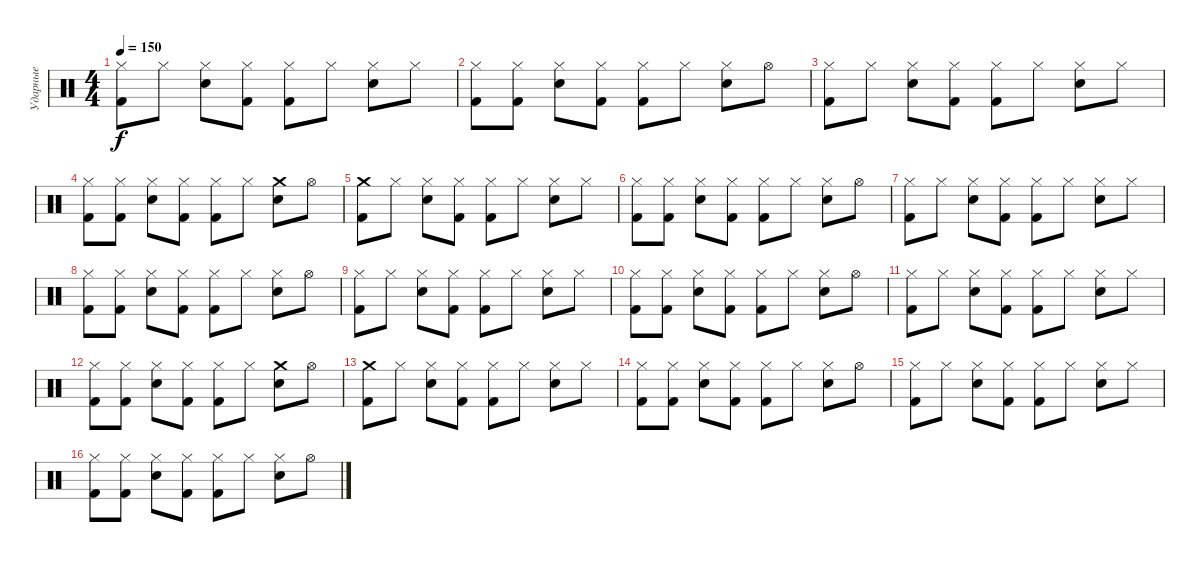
\track ("Ударные" "Ударные") {instrument percussion}
\staff {score}
\articulation defaults
\ts (4 4)
\tempo 150
\clef neutral
\ks c
("Hi-Hat (closed)" "Kick (hit) 2").8{dy f} "Hi-Hat (closed)".8 ("Hi-Hat (closed)" "Snare (hit) 2").8 ("Hi-Hat (closed)" "Kick (hit) 2").8 ("Hi-Hat (closed)" "Kick (hit) 2").8 "Hi-Hat (closed)".8 ("Hi-Hat (closed)" "Snare (hit) 2").8 "Hi-Hat (closed)".8 |
("Hi-Hat (closed)" "Kick (hit) 2").8 ("Hi-Hat (closed)" "Kick (hit) 2").8 ("Hi-Hat (closed)" "Snare (hit) 2").8 ("Hi-Hat (closed)" "Kick (hit) 2").8 ("Hi-Hat (closed)" "Kick (hit) 2").8 "Hi-Hat (closed)".8 ("Hi-Hat (closed)" "Snare (hit) 2").8 "Hi-Hat (open)".8 |
("Hi-Hat (closed)" "Kick (hit) 2").8 "Hi-Hat (closed)".8 ("Hi-Hat (closed)" "Snare (hit) 2").8 ("Hi-Hat (closed)" "Kick (hit) 2").8 ("Hi-Hat (closed)" "Kick (hit) 2").8 "Hi-Hat (closed)".8 ("Hi-Hat (closed)" "Snare (hit) 2").8 "Hi-Hat (closed)".8 |
("Hi-Hat (closed)" "Kick (hit) 2").8 ("Hi-Hat (closed)" "Kick (hit) 2").8 ("Hi-Hat (closed)" "Snare (hit) 2").8 ("Hi-Hat (closed)" "Kick (hit) 2").8 ("Hi-Hat (closed)" "Kick (hit) 2").8 "Hi-Hat (closed)".8 ("Crash medium (hit)" "Snare (hit) 2").8 "Hi-Hat (open)".8 |
("Crash medium (hit)" "Kick (hit) 2").8 "Hi-Hat (closed)".8 ("Hi-Hat (closed)" "Snare (hit) 2").8 ("Hi-Hat (closed)" "Kick (hit) 2").8 ("Hi-Hat (closed)" "Kick (hit) 2").8 "Hi-Hat (closed)".8 ("Hi-Hat (closed)" "Snare (hit) 2").8 "Hi-Hat (closed)".8 |
("Hi-Hat (closed)" "Kick (hit) 2").8 ("Hi-Hat (closed)" "Kick (hit) 2").8 ("Hi-Hat (closed)" "Snare (hit) 2").8 ("Hi-Hat (closed)" "Kick (hit) 2").8 ("Hi-Hat (closed)" "Kick (hit) 2").8 "Hi-Hat (closed)".8 ("Hi-Hat (closed)" "Snare (hit) 2").8 "Hi-Hat (open)".8 |
("Hi-Hat (closed)" "Kick (hit) 2").8 "Hi-Hat (closed)".8 ("Hi-Hat (closed)" "Snare (hit) 2").8 ("Hi-Hat (closed)" "Kick (hit) 2").8 ("Hi-Hat (closed)" "Kick (hit) 2").8 "Hi-Hat (closed)".8 ("Hi-Hat (closed)" "Snare (hit) 2").8 "Hi-Hat (closed)".8 |
("Hi-Hat (closed)" "Kick (hit) 2").8 ("Hi-Hat (closed)" "Kick (hit) 2").8 ("Hi-Hat (closed)" "Snare (hit) 2").8 ("Hi-Hat (closed)" "Kick (hit) 2").8 ("Hi-Hat (closed)" "Kick (hit) 2").8 "Hi-Hat (closed)".8 ("Hi-Hat (closed)" "Snare (hit) 2").8 "Hi-Hat (open)".8 |
("Hi-Hat (closed)" "Kick (hit) 2").8 "Hi-Hat (closed)".8 ("Hi-Hat (closed)" "Snare (hit) 2").8 ("Hi-Hat (closed)" "Kick (hit) 2").8 ("Hi-Hat (closed)" "Kick (hit) 2").8 "Hi-Hat (closed)".8 ("Hi-Hat (closed)" "Snare (hit) 2").8 "Hi-Hat (closed)".8 |
("Hi-Hat (closed)" "Kick (hit) 2").8 ("Hi-Hat (closed)" "Kick (hit) 2").8 ("Hi-Hat (closed)" "Snare (hit) 2").8 ("Hi-Hat (closed)" "Kick (hit) 2").8 ("Hi-Hat (closed)" "Kick (hit) 2").8 "Hi-Hat (closed)".8 ("Hi-Hat (closed)" "Snare (hit) 2").8 "Hi-Hat (open)".8 |
("Hi-Hat (closed)" "Kick (hit) 2").8 "Hi-Hat (closed)".8 ("Hi-Hat (closed)" "Snare (hit) 2").8 ("Hi-Hat (closed)" "Kick (hit) 2").8 ("Hi-Hat (closed)" "Kick (hit) 2").8 "Hi-Hat (closed)".8 ("Hi-Hat (closed)" "Snare (hit) 2").8 "Hi-Hat (closed)".8 |
("Hi-Hat (closed)" "Kick (hit) 2").8 ("Hi-Hat (closed)" "Kick (hit) 2").8 ("Hi-Hat (closed)" "Snare (hit) 2").8 ("Hi-Hat (closed)" "Kick (hit) 2").8 ("Hi-Hat (closed)" "Kick (hit) 2").8 "Hi-Hat (closed)".8 ("Crash medium (hit)" "Snare (hit) 2").8 "Hi-Hat (open)".8 |
("Crash medium (hit)" "Kick (hit) 2").8 "Hi-Hat (closed)".8 ("Hi-Hat (closed)" "Snare (hit) 2").8 ("Hi-Hat (closed)" "Kick (hit) 2").8 ("Hi-Hat (closed)" "Kick (hit) 2").8 "Hi-Hat (closed)".8 ("Hi-Hat (closed)" "Snare (hit) 2").8 "Hi-Hat (closed)".8 |
("Hi-Hat (closed)" "Kick (hit) 2").8 ("Hi-Hat (closed)" "Kick (hit) 2").8 ("Hi-Hat (closed)" "Snare (hit) 2").8 ("Hi-Hat (closed)" "Kick (hit) 2").8 ("Hi-Hat (closed)" "Kick (hit) 2").8 "Hi-Hat (closed)".8 ("Hi-Hat (closed)" "Snare (hit) 2").8 "Hi-Hat (open)".8 |
("Hi-Hat (closed)" "Kick (hit) 2").8 "Hi-Hat (closed)".8 ("Hi-Hat (closed)" "Snare (hit) 2").8 ("Hi-Hat (closed)" "Kick (hit) 2").8 ("Hi-Hat (closed)" "Kick (hit) 2").8 "Hi-Hat (closed)".8 ("Hi-Hat (closed)" "Snare (hit) 2").8 "Hi-Hat (closed)".8 |
("Hi-Hat (closed)" "Kick (hit) 2").8 ("Hi-Hat (closed)" "Kick (hit) 2").8 ("Hi-Hat (closed)" "Snare (hit) 2").8 ("Hi-Hat (closed)" "Kick (hit) 2").8 ("Hi-Hat (closed)" "Kick (hit) 2").8 "Hi-Hat (closed)".8 ("Hi-Hat (closed)" "Snare (hit) 2").8 "Hi-Hat (open)".8
